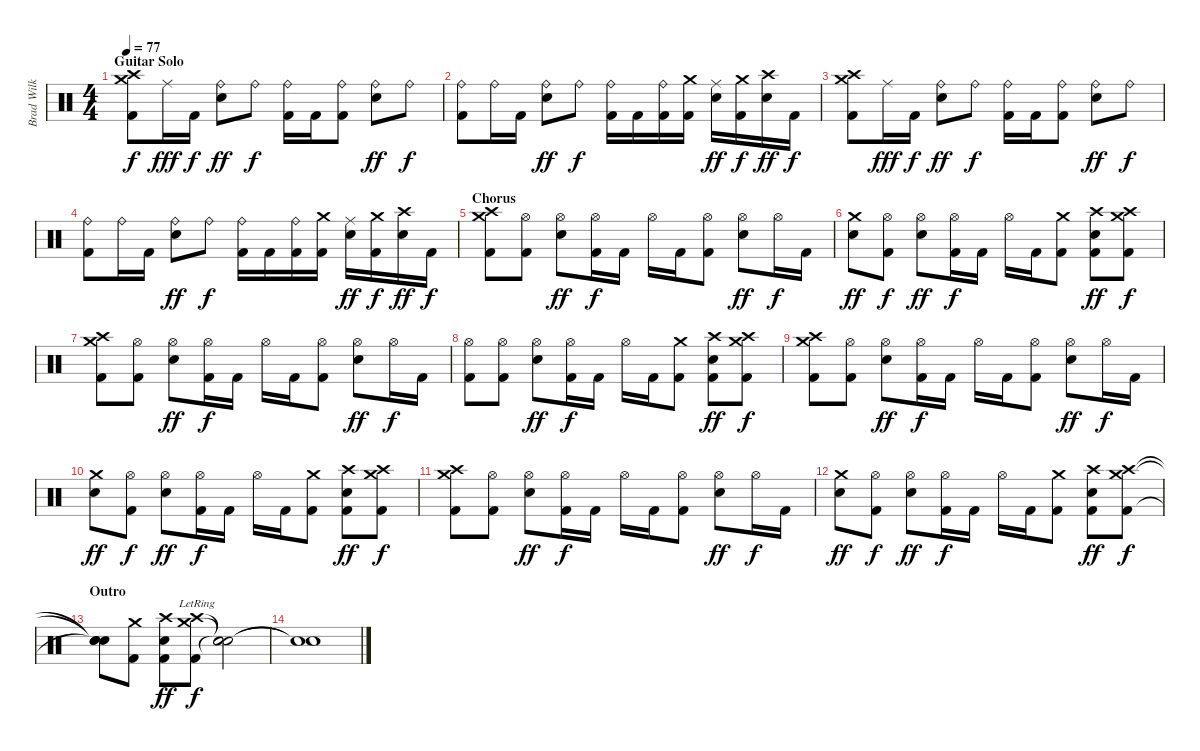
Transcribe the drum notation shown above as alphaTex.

\track ("Brad Wilk / Drums" "Brad Wilk ") {instrument percussion}
\staff {score}
\articulation defaults
\ts (4 4)
\section ("" "Guitar Solo")
\tempo 77
\clef neutral
\ks c
("Crash medium (hit)" "Crash high (hit)" "Kick (hit) 2").8{dy f} "Ride (middle)".16{dy fff} "Kick (hit) 2".16{dy f} ("Ride (bell)" "Snare (hit) 2").8{dy ff} "Ride (bell)".8{dy f} ("Ride (bell)" "Kick (hit) 2").16 "Kick (hit) 2".16 ("Ride (bell)" "Kick (hit) 2").8 ("Ride (bell)" "Snare (hit) 2").8{dy ff} "Ride (bell)".8{dy f} |
("Ride (bell)" "Kick (hit) 2").8 "Ride (bell)".16 "Kick (hit) 2".16 ("Ride (bell)" "Snare (hit) 2").8{dy ff} "Ride (bell)".8{dy f} ("Ride (bell)" "Kick (hit) 2").16 "Kick (hit) 2".16 ("Ride (bell)" "Kick (hit) 2").16 ("Crash medium (hit)" "Kick (hit) 2").16 ("Ride (middle)" "Snare (hit) 2").16{dy ff} ("Crash medium (hit)" "Kick (hit) 2").16{dy f} ("Crash high (hit)" "Snare (hit) 2").16{dy ff} "Kick (hit) 2".16{dy f} |
("Crash medium (hit)" "Crash high (hit)" "Kick (hit) 2").8 "Ride (middle)".16{dy fff} "Kick (hit) 2".16{dy f} ("Ride (bell)" "Snare (hit) 2").8{dy ff} "Ride (bell)".8{dy f} ("Ride (bell)" "Kick (hit) 2").16 "Kick (hit) 2".16 ("Ride (bell)" "Kick (hit) 2").8 ("Ride (bell)" "Snare (hit) 2").8{dy ff} "Ride (bell)".8{dy f} |
("Ride (bell)" "Kick (hit) 2").8 "Ride (bell)".16 "Kick (hit) 2".16 ("Ride (bell)" "Snare (hit) 2").8{dy ff} "Ride (bell)".8{dy f} ("Ride (bell)" "Kick (hit) 2").16 "Kick (hit) 2".16 ("Ride (bell)" "Kick (hit) 2").16 ("Crash medium (hit)" "Kick (hit) 2").16 ("Ride (middle)" "Snare (hit) 2").16{dy ff} ("Crash medium (hit)" "Kick (hit) 2").16{dy f} ("Crash high (hit)" "Snare (hit) 2").16{dy ff} "Kick (hit) 2".16{dy f} |
\section ("" "Chorus")
("Crash medium (hit)" "Crash high (hit)" "Kick (hit) 2").8 ("Hi-Hat (open)" "Kick (hit) 2").8 ("Hi-Hat (open)" "Snare (hit) 2").8{dy ff} ("Hi-Hat (open)" "Kick (hit) 2").16{dy f} "Kick (hit) 2".16 "Hi-Hat (open)".16 "Kick (hit) 2".16 ("Hi-Hat (open)" "Kick (hit) 2").8 ("Hi-Hat (open)" "Snare (hit) 2").8{dy ff} "Hi-Hat (open)".16{dy f} "Kick (hit) 2".16 |
("Crash medium (hit)" "Snare (hit) 2").8{dy ff} ("Hi-Hat (open)" "Kick (hit) 2").8{dy f} ("Hi-Hat (open)" "Snare (hit) 2").8{dy ff} ("Hi-Hat (open)" "Kick (hit) 2").16{dy f} "Kick (hit) 2".16 "Hi-Hat (open)".16 "Kick (hit) 2".16 ("Crash medium (hit)" "Kick (hit) 2").8 ("Crash high (hit)" "Snare (hit) 2" "Kick (hit) 2").8{dy ff} ("Crash medium (hit)" "Crash high (hit)" "Kick (hit) 2").8{dy f} |
("Crash medium (hit)" "Crash high (hit)" "Kick (hit) 2").8 ("Hi-Hat (open)" "Kick (hit) 2").8 ("Hi-Hat (open)" "Snare (hit) 2").8{dy ff} ("Hi-Hat (open)" "Kick (hit) 2").16{dy f} "Kick (hit) 2".16 "Hi-Hat (open)".16 "Kick (hit) 2".16 ("Hi-Hat (open)" "Kick (hit) 2").8 ("Hi-Hat (open)" "Snare (hit) 2").8{dy ff} "Hi-Hat (open)".16{dy f} "Kick (hit) 2".16 |
("Hi-Hat (open)" "Kick (hit) 2").8 ("Hi-Hat (open)" "Kick (hit) 2").8 ("Hi-Hat (open)" "Snare (hit) 2").8{dy ff} ("Hi-Hat (open)" "Kick (hit) 2").16{dy f} "Kick (hit) 2".16 "Hi-Hat (open)".16 "Kick (hit) 2".16 ("Crash medium (hit)" "Kick (hit) 2").8 ("Crash high (hit)" "Snare (hit) 2" "Kick (hit) 2").8{dy ff} ("Crash medium (hit)" "Crash high (hit)" "Kick (hit) 2").8{dy f} |
("Crash medium (hit)" "Crash high (hit)" "Kick (hit) 2").8 ("Hi-Hat (open)" "Kick (hit) 2").8 ("Hi-Hat (open)" "Snare (hit) 2").8{dy ff} ("Hi-Hat (open)" "Kick (hit) 2").16{dy f} "Kick (hit) 2".16 "Hi-Hat (open)".16 "Kick (hit) 2".16 ("Hi-Hat (open)" "Kick (hit) 2").8 ("Hi-Hat (open)" "Snare (hit) 2").8{dy ff} "Hi-Hat (open)".16{dy f} "Kick (hit) 2".16 |
("Crash medium (hit)" "Snare (hit) 2").8{dy ff} ("Hi-Hat (open)" "Kick (hit) 2").8{dy f} ("Hi-Hat (open)" "Snare (hit) 2").8{dy ff} ("Hi-Hat (open)" "Kick (hit) 2").16{dy f} "Kick (hit) 2".16 "Hi-Hat (open)".16 "Kick (hit) 2".16 ("Crash medium (hit)" "Kick (hit) 2").8 ("Crash high (hit)" "Snare (hit) 2" "Kick (hit) 2").8{dy ff} ("Crash medium (hit)" "Crash high (hit)" "Kick (hit) 2").8{dy f} |
("Crash medium (hit)" "Crash high (hit)" "Kick (hit) 2").8 ("Hi-Hat (open)" "Kick (hit) 2").8 ("Hi-Hat (open)" "Snare (hit) 2").8{dy ff} ("Hi-Hat (open)" "Kick (hit) 2").16{dy f} "Kick (hit) 2".16 "Hi-Hat (open)".16 "Kick (hit) 2".16 ("Hi-Hat (open)" "Kick (hit) 2").8 ("Hi-Hat (open)" "Snare (hit) 2").8{dy ff} "Hi-Hat (open)".16{dy f} "Kick (hit) 2".16 |
("Crash medium (hit)" "Snare (hit) 2").8{dy ff} ("Hi-Hat (open)" "Kick (hit) 2").8{dy f} ("Hi-Hat (open)" "Snare (hit) 2").8{dy ff} ("Hi-Hat (open)" "Kick (hit) 2").16{dy f} "Kick (hit) 2".16 "Hi-Hat (open)".16 "Kick (hit) 2".16 ("Crash medium (hit)" "Kick (hit) 2").8 ("Crash high (hit)" "Snare (hit) 2" "Kick (hit) 2").8{dy ff} ("Crash medium (hit)" "Crash high (hit)" "Kick (hit) 2").8{dy f} |
\section ("" "Outro")
("Snare (hit)"{t} "Snare (hit)"{t} "Snare (hit)"{t}).8 ("Crash medium (hit)" "Kick (hit) 2").8 ("Crash high (hit)" "Snare (hit) 2" "Kick (hit) 2").8{dy ff} ("Crash medium (hit)"{lr} "Crash high (hit)"{lr} "Kick (hit) 2").8{dy f} ("Snare (hit)"{t} "Snare (hit)"{t} "Snare (hit)"{t}).2 |
("Snare (hit)"{t} "Snare (hit)"{t}).1
